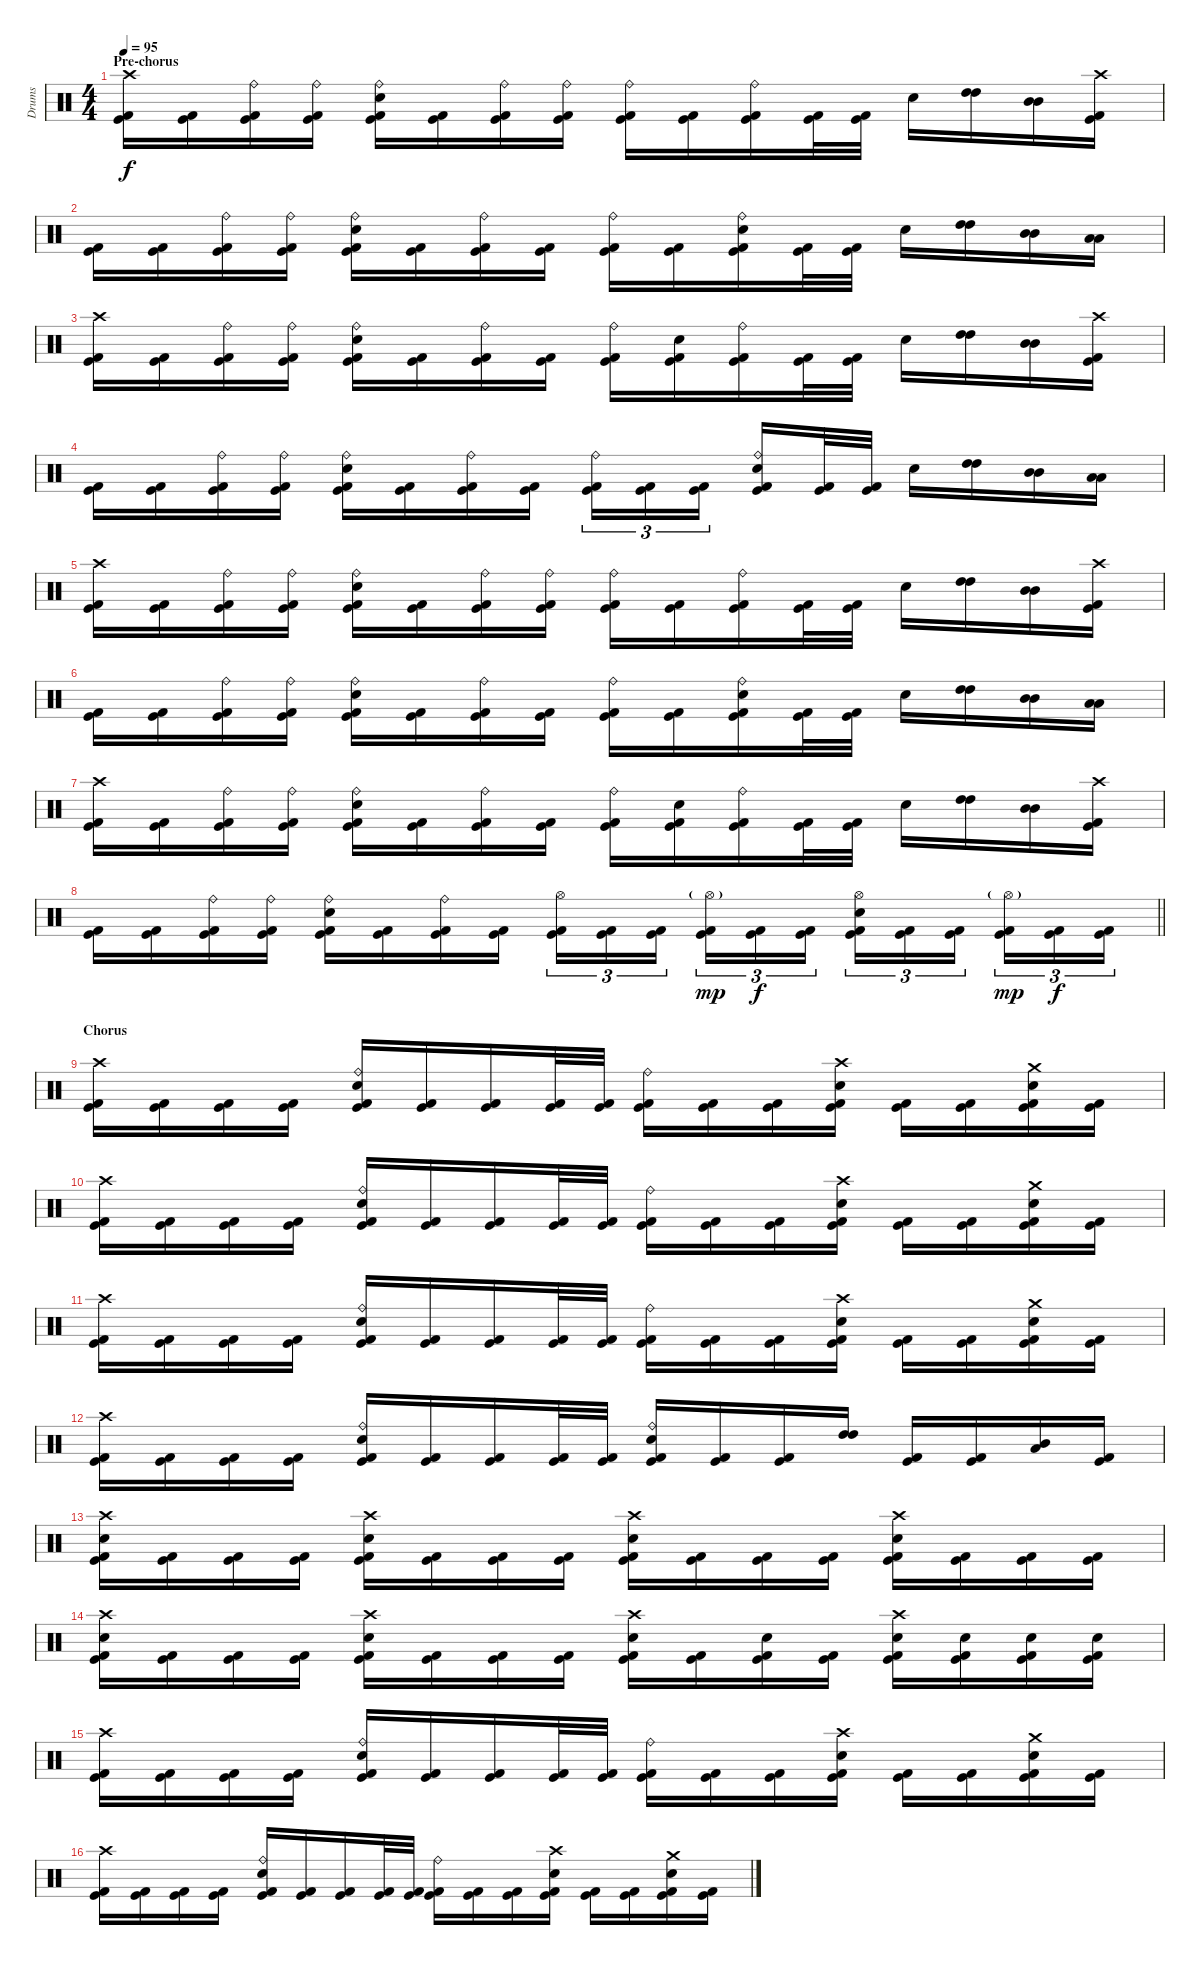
\track ("Drums" "Drums") {instrument percussion}
\staff {score}
\articulation defaults
\ts (4 4)
\section ("" "Pre-chorus")
\tempo 95
\clef neutral
\ks c
("Crash high (hit)" "Kick (hit) 2" "Kick (hit)").16{dy f} ("Kick (hit) 2" "Kick (hit)").16 ("Ride (bell)" "Kick (hit) 2" "Kick (hit)").16 ("Ride (bell)" "Kick (hit) 2" "Kick (hit)").16 ("Ride (bell)" "Snare (hit) 2" "Kick (hit) 2" "Kick (hit)").16 ("Kick (hit) 2" "Kick (hit)").16 ("Ride (bell)" "Kick (hit) 2" "Kick (hit)").16 ("Ride (bell)" "Kick (hit) 2" "Kick (hit)").16 ("Ride (bell)" "Kick (hit) 2" "Kick (hit)").16 ("Kick (hit) 2" "Kick (hit)").16 ("Ride (bell)" "Kick (hit) 2" "Kick (hit)").16 ("Kick (hit) 2" "Kick (hit)").32 ("Kick (hit) 2" "Kick (hit)").32 "Snare (hit) 2".16 ("High Tom (hit)" "High Tom (hit)").16 ("Mid Tom (hit)" "Mid Tom (hit)").16 ("Crash high (hit)" "Kick (hit) 2" "Kick (hit)").16 |
("Kick (hit) 2" "Kick (hit)").16 ("Kick (hit) 2" "Kick (hit)").16 ("Ride (bell)" "Kick (hit) 2" "Kick (hit)").16 ("Ride (bell)" "Kick (hit) 2" "Kick (hit)").16 ("Ride (bell)" "Snare (hit) 2" "Kick (hit) 2" "Kick (hit)").16 ("Kick (hit) 2" "Kick (hit)").16 ("Ride (bell)" "Kick (hit) 2" "Kick (hit)").16 ("Kick (hit) 2" "Kick (hit)").16 ("Ride (bell)" "Kick (hit) 2" "Kick (hit)").16 ("Kick (hit) 2" "Kick (hit)").16 ("Ride (bell)" "Snare (hit) 2" "Kick (hit) 2" "Kick (hit)").16 ("Kick (hit) 2" "Kick (hit)").32 ("Kick (hit) 2" "Kick (hit)").32 "Snare (hit) 2".16 ("High Tom (hit)" "High Tom (hit)").16 ("Mid Tom (hit)" "Mid Tom (hit)").16 ("Low Tom (hit)" "Low Tom (hit)").16 |
("Crash high (hit)" "Kick (hit) 2" "Kick (hit)").16 ("Kick (hit) 2" "Kick (hit)").16 ("Ride (bell)" "Kick (hit) 2" "Kick (hit)").16 ("Ride (bell)" "Kick (hit) 2" "Kick (hit)").16 ("Ride (bell)" "Snare (hit) 2" "Kick (hit) 2" "Kick (hit)").16 ("Kick (hit) 2" "Kick (hit)").16 ("Ride (bell)" "Kick (hit) 2" "Kick (hit)").16 ("Kick (hit) 2" "Kick (hit)").16 ("Ride (bell)" "Kick (hit) 2" "Kick (hit)").16 ("Snare (hit) 2" "Kick (hit) 2" "Kick (hit)").16 ("Ride (bell)" "Kick (hit) 2" "Kick (hit)").16 ("Kick (hit) 2" "Kick (hit)").32 ("Kick (hit) 2" "Kick (hit)").32 "Snare (hit) 2".16 ("High Tom (hit)" "High Tom (hit)").16 ("Mid Tom (hit)" "Mid Tom (hit)").16 ("Crash high (hit)" "Kick (hit) 2" "Kick (hit)").16 |
("Kick (hit) 2" "Kick (hit)").16 ("Kick (hit) 2" "Kick (hit)").16 ("Ride (bell)" "Kick (hit) 2" "Kick (hit)").16 ("Ride (bell)" "Kick (hit) 2" "Kick (hit)").16 ("Ride (bell)" "Snare (hit) 2" "Kick (hit) 2" "Kick (hit)").16 ("Kick (hit) 2" "Kick (hit)").16 ("Ride (bell)" "Kick (hit) 2" "Kick (hit)").16 ("Kick (hit) 2" "Kick (hit)").16 ("Ride (bell)" "Kick (hit) 2" "Kick (hit)").16{tu (3 2)} ("Kick (hit) 2" "Kick (hit)").16{tu (3 2)} ("Kick (hit) 2" "Kick (hit)").16{tu (3 2) beam splitsecondary} ("Ride (bell)" "Snare (hit) 2" "Kick (hit) 2" "Kick (hit)").16 ("Kick (hit) 2" "Kick (hit)").32 ("Kick (hit) 2" "Kick (hit)").32 "Snare (hit) 2".16 ("High Tom (hit)" "High Tom (hit)").16 ("Mid Tom (hit)" "Mid Tom (hit)").16 ("Low Tom (hit)" "Low Tom (hit)").16 |
("Crash high (hit)" "Kick (hit) 2" "Kick (hit)").16 ("Kick (hit) 2" "Kick (hit)").16 ("Ride (bell)" "Kick (hit) 2" "Kick (hit)").16 ("Ride (bell)" "Kick (hit) 2" "Kick (hit)").16 ("Ride (bell)" "Snare (hit) 2" "Kick (hit) 2" "Kick (hit)").16 ("Kick (hit) 2" "Kick (hit)").16 ("Ride (bell)" "Kick (hit) 2" "Kick (hit)").16 ("Ride (bell)" "Kick (hit) 2" "Kick (hit)").16 ("Ride (bell)" "Kick (hit) 2" "Kick (hit)").16 ("Kick (hit) 2" "Kick (hit)").16 ("Ride (bell)" "Kick (hit) 2" "Kick (hit)").16 ("Kick (hit) 2" "Kick (hit)").32 ("Kick (hit) 2" "Kick (hit)").32 "Snare (hit) 2".16 ("High Tom (hit)" "High Tom (hit)").16 ("Mid Tom (hit)" "Mid Tom (hit)").16 ("Crash high (hit)" "Kick (hit) 2" "Kick (hit)").16 |
("Kick (hit) 2" "Kick (hit)").16 ("Kick (hit) 2" "Kick (hit)").16 ("Ride (bell)" "Kick (hit) 2" "Kick (hit)").16 ("Ride (bell)" "Kick (hit) 2" "Kick (hit)").16 ("Ride (bell)" "Snare (hit) 2" "Kick (hit) 2" "Kick (hit)").16 ("Kick (hit) 2" "Kick (hit)").16 ("Ride (bell)" "Kick (hit) 2" "Kick (hit)").16 ("Kick (hit) 2" "Kick (hit)").16 ("Ride (bell)" "Kick (hit) 2" "Kick (hit)").16 ("Kick (hit) 2" "Kick (hit)").16 ("Ride (bell)" "Snare (hit) 2" "Kick (hit) 2" "Kick (hit)").16 ("Kick (hit) 2" "Kick (hit)").32 ("Kick (hit) 2" "Kick (hit)").32 "Snare (hit) 2".16 ("High Tom (hit)" "High Tom (hit)").16 ("Mid Tom (hit)" "Mid Tom (hit)").16 ("Low Tom (hit)" "Low Tom (hit)").16 |
("Crash high (hit)" "Kick (hit) 2" "Kick (hit)").16 ("Kick (hit) 2" "Kick (hit)").16 ("Ride (bell)" "Kick (hit) 2" "Kick (hit)").16 ("Ride (bell)" "Kick (hit) 2" "Kick (hit)").16 ("Ride (bell)" "Snare (hit) 2" "Kick (hit) 2" "Kick (hit)").16 ("Kick (hit) 2" "Kick (hit)").16 ("Ride (bell)" "Kick (hit) 2" "Kick (hit)").16 ("Kick (hit) 2" "Kick (hit)").16 ("Ride (bell)" "Kick (hit) 2" "Kick (hit)").16 ("Snare (hit) 2" "Kick (hit) 2" "Kick (hit)").16 ("Ride (bell)" "Kick (hit) 2" "Kick (hit)").16 ("Kick (hit) 2" "Kick (hit)").32 ("Kick (hit) 2" "Kick (hit)").32 "Snare (hit) 2".16 ("High Tom (hit)" "High Tom (hit)").16 ("Mid Tom (hit)" "Mid Tom (hit)").16 ("Crash high (hit)" "Kick (hit) 2" "Kick (hit)").16 |
\barLineRight lightlight
("Kick (hit) 2" "Kick (hit)").16 ("Kick (hit) 2" "Kick (hit)").16 ("Ride (bell)" "Kick (hit) 2" "Kick (hit)").16 ("Ride (bell)" "Kick (hit) 2" "Kick (hit)").16 ("Ride (bell)" "Snare (hit) 2" "Kick (hit) 2" "Kick (hit)").16 ("Kick (hit) 2" "Kick (hit)").16 ("Ride (bell)" "Kick (hit) 2" "Kick (hit)").16 ("Kick (hit) 2" "Kick (hit)").16 ("Hi-Hat (open)" "Kick (hit) 2" "Kick (hit)").16{tu (3 2)} ("Kick (hit) 2" "Kick (hit)").16{tu (3 2)} ("Kick (hit) 2" "Kick (hit)").16{tu (3 2) beam splitsecondary} ("Hi-Hat (open)"{g} "Kick (hit) 2" "Kick (hit)").16{tu (3 2) dy mp} ("Kick (hit) 2" "Kick (hit)").16{tu (3 2) dy f} ("Kick (hit) 2" "Kick (hit)").16{tu (3 2)} ("Hi-Hat (open)" "Snare (hit) 2" "Kick (hit) 2" "Kick (hit)").16{tu (3 2)} ("Kick (hit) 2" "Kick (hit)").16{tu (3 2)} ("Kick (hit) 2" "Kick (hit)").16{tu (3 2) beam splitsecondary} ("Hi-Hat (open)"{g} "Kick (hit) 2" "Kick (hit)").16{tu (3 2) dy mp} ("Kick (hit) 2" "Kick (hit)").16{tu (3 2) dy f} ("Kick (hit) 2" "Kick (hit)").16{tu (3 2)} |
\section ("" "Chorus")
("Crash high (hit)" "Kick (hit) 2" "Kick (hit)").16 ("Kick (hit) 2" "Kick (hit)").16 ("Kick (hit) 2" "Kick (hit)").16 ("Kick (hit) 2" "Kick (hit)").16 ("Ride (bell)" "Snare (hit) 2" "Kick (hit) 2" "Kick (hit)").16 ("Kick (hit) 2" "Kick (hit)").16 ("Kick (hit) 2" "Kick (hit)").16 ("Kick (hit) 2" "Kick (hit)").32 ("Kick (hit) 2" "Kick (hit)").32 ("Ride (bell)" "Kick (hit) 2" "Kick (hit)").16 ("Kick (hit) 2" "Kick (hit)").16 ("Kick (hit) 2" "Kick (hit)").16 ("Crash high (hit)" "Snare (hit) 2" "Kick (hit) 2" "Kick (hit)").16 ("Kick (hit) 2" "Kick (hit)").16 ("Kick (hit) 2" "Kick (hit)").16 ("Crash medium (hit)" "Snare (hit) 2" "Kick (hit) 2" "Kick (hit)").16 ("Kick (hit) 2" "Kick (hit)").16 |
("Crash high (hit)" "Kick (hit) 2" "Kick (hit)").16 ("Kick (hit) 2" "Kick (hit)").16 ("Kick (hit) 2" "Kick (hit)").16 ("Kick (hit) 2" "Kick (hit)").16 ("Ride (bell)" "Snare (hit) 2" "Kick (hit) 2" "Kick (hit)").16 ("Kick (hit) 2" "Kick (hit)").16 ("Kick (hit) 2" "Kick (hit)").16 ("Kick (hit) 2" "Kick (hit)").32 ("Kick (hit) 2" "Kick (hit)").32 ("Ride (bell)" "Kick (hit) 2" "Kick (hit)").16 ("Kick (hit) 2" "Kick (hit)").16 ("Kick (hit) 2" "Kick (hit)").16 ("Crash high (hit)" "Snare (hit) 2" "Kick (hit) 2" "Kick (hit)").16 ("Kick (hit) 2" "Kick (hit)").16 ("Kick (hit) 2" "Kick (hit)").16 ("Crash medium (hit)" "Snare (hit) 2" "Kick (hit) 2" "Kick (hit)").16 ("Kick (hit) 2" "Kick (hit)").16 |
("Crash high (hit)" "Kick (hit) 2" "Kick (hit)").16 ("Kick (hit) 2" "Kick (hit)").16 ("Kick (hit) 2" "Kick (hit)").16 ("Kick (hit) 2" "Kick (hit)").16 ("Ride (bell)" "Snare (hit) 2" "Kick (hit) 2" "Kick (hit)").16 ("Kick (hit) 2" "Kick (hit)").16 ("Kick (hit) 2" "Kick (hit)").16 ("Kick (hit) 2" "Kick (hit)").32 ("Kick (hit) 2" "Kick (hit)").32 ("Ride (bell)" "Kick (hit) 2" "Kick (hit)").16 ("Kick (hit) 2" "Kick (hit)").16 ("Kick (hit) 2" "Kick (hit)").16 ("Crash high (hit)" "Snare (hit) 2" "Kick (hit) 2" "Kick (hit)").16 ("Kick (hit) 2" "Kick (hit)").16 ("Kick (hit) 2" "Kick (hit)").16 ("Crash medium (hit)" "Snare (hit) 2" "Kick (hit) 2" "Kick (hit)").16 ("Kick (hit) 2" "Kick (hit)").16 |
("Crash high (hit)" "Kick (hit) 2" "Kick (hit)").16 ("Kick (hit) 2" "Kick (hit)").16 ("Kick (hit) 2" "Kick (hit)").16 ("Kick (hit) 2" "Kick (hit)").16 ("Ride (bell)" "Snare (hit) 2" "Kick (hit) 2" "Kick (hit)").16 ("Kick (hit) 2" "Kick (hit)").16 ("Kick (hit) 2" "Kick (hit)").16 ("Kick (hit) 2" "Kick (hit)").32 ("Kick (hit) 2" "Kick (hit)").32 ("Ride (bell)" "Snare (hit) 2" "Kick (hit) 2" "Kick (hit)").16 ("Kick (hit) 2" "Kick (hit)").16 ("Kick (hit) 2" "Kick (hit)").16 ("High Tom (hit)" "High Tom (hit)").16 ("Kick (hit) 2" "Kick (hit)").16 ("Kick (hit) 2" "Kick (hit)").16 ("Low Tom (hit)" "Mid Tom (hit)").16 ("Kick (hit) 2" "Kick (hit)").16 |
("Crash high (hit)" "Snare (hit) 2" "Kick (hit) 2" "Kick (hit)").16 ("Kick (hit) 2" "Kick (hit)").16 ("Kick (hit) 2" "Kick (hit)").16 ("Kick (hit) 2" "Kick (hit)").16 ("Crash high (hit)" "Snare (hit) 2" "Kick (hit) 2" "Kick (hit)").16 ("Kick (hit) 2" "Kick (hit)").16 ("Kick (hit) 2" "Kick (hit)").16 ("Kick (hit) 2" "Kick (hit)").16 ("Crash high (hit)" "Snare (hit) 2" "Kick (hit) 2" "Kick (hit)").16 ("Kick (hit) 2" "Kick (hit)").16 ("Kick (hit) 2" "Kick (hit)").16 ("Kick (hit) 2" "Kick (hit)").16 ("Crash high (hit)" "Snare (hit) 2" "Kick (hit) 2" "Kick (hit)").16 ("Kick (hit) 2" "Kick (hit)").16 ("Kick (hit) 2" "Kick (hit)").16 ("Kick (hit) 2" "Kick (hit)").16 |
("Crash high (hit)" "Snare (hit) 2" "Kick (hit) 2" "Kick (hit)").16 ("Kick (hit) 2" "Kick (hit)").16 ("Kick (hit) 2" "Kick (hit)").16 ("Kick (hit) 2" "Kick (hit)").16 ("Crash high (hit)" "Snare (hit) 2" "Kick (hit) 2" "Kick (hit)").16 ("Kick (hit) 2" "Kick (hit)").16 ("Kick (hit) 2" "Kick (hit)").16 ("Kick (hit) 2" "Kick (hit)").16 ("Crash high (hit)" "Snare (hit) 2" "Kick (hit) 2" "Kick (hit)").16 ("Kick (hit) 2" "Kick (hit)").16 ("Snare (hit) 2" "Kick (hit) 2" "Kick (hit)").16 ("Kick (hit) 2" "Kick (hit)").16 ("Crash high (hit)" "Snare (hit) 2" "Kick (hit) 2" "Kick (hit)").16 ("Snare (hit) 2" "Kick (hit) 2" "Kick (hit)").16 ("Snare (hit) 2" "Kick (hit) 2" "Kick (hit)").16 ("Snare (hit) 2" "Kick (hit) 2" "Kick (hit)").16 |
("Crash high (hit)" "Kick (hit) 2" "Kick (hit)").16 ("Kick (hit) 2" "Kick (hit)").16 ("Kick (hit) 2" "Kick (hit)").16 ("Kick (hit) 2" "Kick (hit)").16 ("Ride (bell)" "Snare (hit) 2" "Kick (hit) 2" "Kick (hit)").16 ("Kick (hit) 2" "Kick (hit)").16 ("Kick (hit) 2" "Kick (hit)").16 ("Kick (hit) 2" "Kick (hit)").32 ("Kick (hit) 2" "Kick (hit)").32 ("Ride (bell)" "Kick (hit) 2" "Kick (hit)").16 ("Kick (hit) 2" "Kick (hit)").16 ("Kick (hit) 2" "Kick (hit)").16 ("Crash high (hit)" "Snare (hit) 2" "Kick (hit) 2" "Kick (hit)").16 ("Kick (hit) 2" "Kick (hit)").16 ("Kick (hit) 2" "Kick (hit)").16 ("Crash medium (hit)" "Snare (hit) 2" "Kick (hit) 2" "Kick (hit)").16 ("Kick (hit) 2" "Kick (hit)").16 |
("Crash high (hit)" "Kick (hit) 2" "Kick (hit)").16 ("Kick (hit) 2" "Kick (hit)").16 ("Kick (hit) 2" "Kick (hit)").16 ("Kick (hit) 2" "Kick (hit)").16 ("Ride (bell)" "Snare (hit) 2" "Kick (hit) 2" "Kick (hit)").16 ("Kick (hit) 2" "Kick (hit)").16 ("Kick (hit) 2" "Kick (hit)").16 ("Kick (hit) 2" "Kick (hit)").32 ("Kick (hit) 2" "Kick (hit)").32 ("Ride (bell)" "Kick (hit) 2" "Kick (hit)").16 ("Kick (hit) 2" "Kick (hit)").16 ("Kick (hit) 2" "Kick (hit)").16 ("Crash high (hit)" "Snare (hit) 2" "Kick (hit) 2" "Kick (hit)").16 ("Kick (hit) 2" "Kick (hit)").16 ("Kick (hit) 2" "Kick (hit)").16 ("Crash medium (hit)" "Snare (hit) 2" "Kick (hit) 2" "Kick (hit)").16 ("Kick (hit) 2" "Kick (hit)").16
